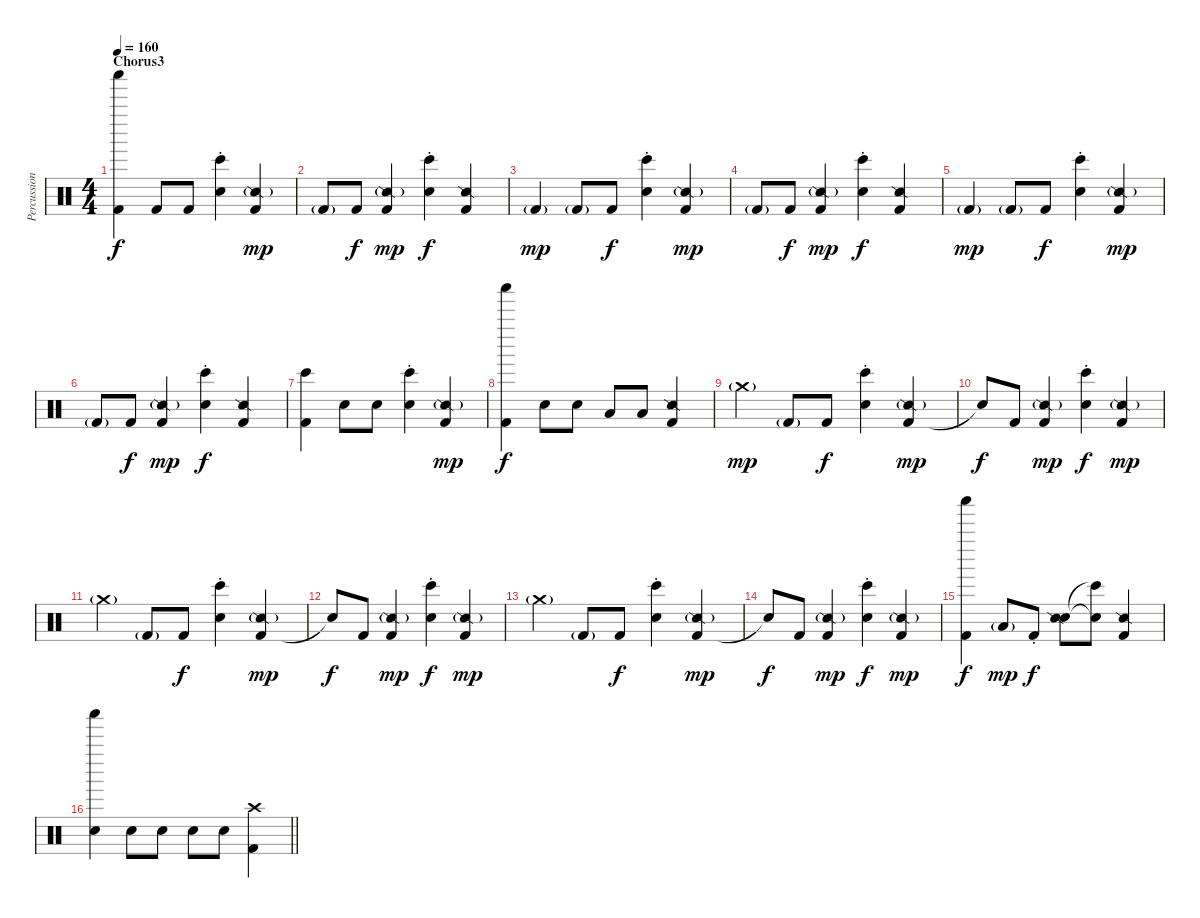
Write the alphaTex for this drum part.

\track ("Percussion" "Percussion") {instrument percussion}
\staff {score}
\articulation defaults
\ts (4 4)
\section ("" "Chorus3")
\tempo 160
\clef neutral
\ks c
("Kick (hit) 2" "Shaker (hit)").4{dy f} "Kick (hit) 2".8 "Kick (hit) 2".8 ("Electric Snare (hit)" "Bongo High (hit)"{st}).4 ("Kick (hit) 2" "Snare (side stick) 2"{g}).4{dy mp} |
"Kick (hit) 2"{g}.8 "Kick (hit) 2".8{dy f} ("Kick (hit) 2" "Snare (side stick) 2"{g}).4{dy mp} ("Electric Snare (hit)" "Bongo High (hit)"{st}).4{dy f} ("Kick (hit) 2" "Snare (side stick) 2").4 |
"Kick (hit) 2"{g}.4{dy mp} "Kick (hit) 2"{g}.8 "Kick (hit) 2".8{dy f} ("Electric Snare (hit)" "Bongo High (hit)"{st}).4 ("Kick (hit) 2" "Snare (side stick) 2"{g}).4{dy mp} |
"Kick (hit) 2"{g}.8 "Kick (hit) 2".8{dy f} ("Kick (hit) 2" "Snare (side stick) 2"{g}).4{dy mp} ("Electric Snare (hit)" "Bongo High (hit)"{st}).4{dy f} ("Kick (hit) 2" "Snare (side stick) 2").4 |
"Kick (hit) 2"{g}.4{dy mp} "Kick (hit) 2"{g}.8 "Kick (hit) 2".8{dy f} ("Electric Snare (hit)" "Bongo High (hit)"{st}).4 ("Kick (hit) 2" "Snare (side stick) 2"{g}).4{dy mp} |
"Kick (hit) 2"{g}.8 "Kick (hit) 2".8{dy f} ("Kick (hit) 2" "Snare (side stick) 2"{g}).4{dy mp} ("Electric Snare (hit)" "Bongo High (hit)"{st}).4{dy f} ("Kick (hit) 2" "Snare (side stick) 2").4 |
("Kick (hit) 2" "Bongo High (hit)").4 "Electric Snare (hit)".8 "Electric Snare (hit)".8 ("Electric Snare (hit)" "Bongo High (hit)"{st}).4 ("Kick (hit) 2" "Snare (side stick) 2"{g}).4{dy mp} |
("Kick (hit) 2" "Shaker (hit)").4{dy f} "Electric Snare (hit)".8 "Electric Snare (hit)".8 "Low Tom (hit)".8 "Low Tom (hit)".8 ("Kick (hit) 2" "Snare (side stick) 2").4 |
"Crash medium (hit)"{g}.4{dy mp} "Kick (hit) 2"{g}.8 "Kick (hit) 2".8{dy f} ("Electric Snare (hit)" "Bongo High (hit)"{st}).4 ("Kick (hit) 2" "Snare (side stick) 2"{g}).4{dy mp} |
"Snare (hit)"{t}.8{dy f} "Kick (hit) 2".8 ("Kick (hit) 2" "Snare (side stick) 2"{g}).4{dy mp} ("Electric Snare (hit)" "Bongo High (hit)"{st}).4{dy f} ("Kick (hit) 2" "Snare (side stick) 2"{g}).4{dy mp} |
"Crash medium (hit)"{g}.4 "Kick (hit) 2"{g}.8 "Kick (hit) 2".8{dy f} ("Electric Snare (hit)" "Bongo High (hit)"{st}).4 ("Kick (hit) 2" "Snare (side stick) 2"{g}).4{dy mp} |
"Snare (hit)"{t}.8{dy f} "Kick (hit) 2".8 ("Kick (hit) 2" "Snare (side stick) 2"{g}).4{dy mp} ("Electric Snare (hit)" "Bongo High (hit)"{st}).4{dy f} ("Kick (hit) 2" "Snare (side stick) 2"{g}).4{dy mp} |
"Crash medium (hit)"{g}.4 "Kick (hit) 2"{g}.8 "Kick (hit) 2".8{dy f} ("Electric Snare (hit)" "Bongo High (hit)"{st}).4 ("Kick (hit) 2" "Snare (side stick) 2"{g}).4{dy mp} |
"Snare (hit)"{t}.8{dy f} "Kick (hit) 2".8 ("Kick (hit) 2" "Snare (side stick) 2"{g}).4{dy mp} ("Electric Snare (hit)" "Bongo High (hit)"{st}).4{dy f} ("Kick (hit) 2" "Snare (side stick) 2"{g}).4{dy mp} |
("Kick (hit) 2" "Shaker (hit)").4{dy f} "Low Tom (hit)"{g}.8{dy mp} "Kick (hit) 2"{st}.8{dy f} ("Electric Snare (hit)" "Snare (side stick) 2").8 ("Electric Snare (hit)"{t} "Bongo High (hit)"{t}).8 ("Kick (hit) 2" "Snare (side stick) 2").4 |
\barLineRight lightlight
("Electric Snare (hit)" "Shaker (hit)").4 "Electric Snare (hit)".8 "Electric Snare (hit)".8 "Electric Snare (hit)".8 "Electric Snare (hit)".8 ("Kick (hit) 2" "Crash high (hit)").4
